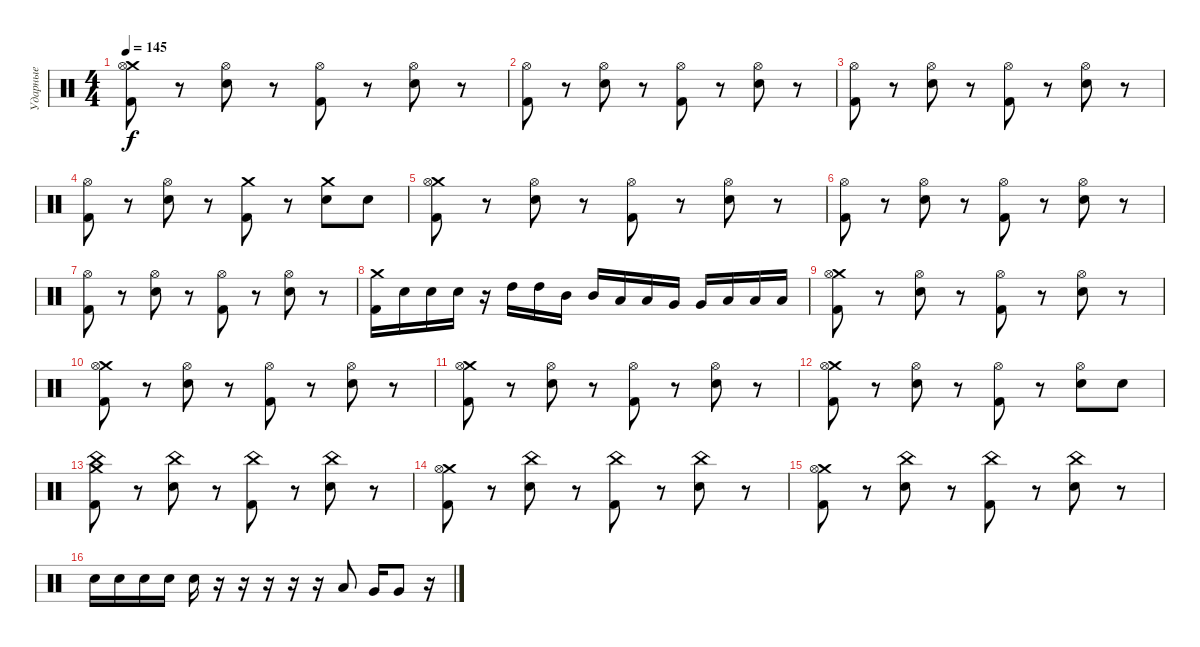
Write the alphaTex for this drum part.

\track ("Ударные" "Ударные") {instrument percussion}
\staff {score}
\articulation defaults
\ts (4 4)
\tempo 145
\clef neutral
\ks c
("Crash medium (hit)" "Hi-Hat (open)" "Kick (hit) 2").8{dy f} r.8 ("Hi-Hat (open)" "Electric Snare (hit)").8 r.8 ("Hi-Hat (open)" "Kick (hit) 2").8 r.8 ("Hi-Hat (open)" "Electric Snare (hit)").8 r.8 |
("Hi-Hat (open)" "Kick (hit) 2").8 r.8 ("Hi-Hat (open)" "Electric Snare (hit)").8 r.8 ("Hi-Hat (open)" "Kick (hit) 2").8 r.8 ("Hi-Hat (open)" "Electric Snare (hit)").8 r.8 |
("Hi-Hat (open)" "Kick (hit) 2").8 r.8 ("Hi-Hat (open)" "Electric Snare (hit)").8 r.8 ("Hi-Hat (open)" "Kick (hit) 2").8 r.8 ("Hi-Hat (open)" "Electric Snare (hit)").8 r.8 |
("Hi-Hat (open)" "Kick (hit) 2").8 r.8 ("Hi-Hat (open)" "Electric Snare (hit)").8 r.8 ("Crash medium (hit)" "Kick (hit) 2").8 r.8 ("Crash medium (hit)" "Electric Snare (hit)").8 "Electric Snare (hit)".8 |
("Crash medium (hit)" "Hi-Hat (open)" "Kick (hit) 2").8 r.8 ("Hi-Hat (open)" "Electric Snare (hit)").8 r.8 ("Hi-Hat (open)" "Kick (hit) 2").8 r.8 ("Hi-Hat (open)" "Electric Snare (hit)").8 r.8 |
("Hi-Hat (open)" "Kick (hit) 2").8 r.8 ("Hi-Hat (open)" "Electric Snare (hit)").8 r.8 ("Hi-Hat (open)" "Kick (hit) 2").8 r.8 ("Hi-Hat (open)" "Electric Snare (hit)").8 r.8 |
("Hi-Hat (open)" "Kick (hit) 2").8 r.8 ("Hi-Hat (open)" "Electric Snare (hit)").8 r.8 ("Hi-Hat (open)" "Kick (hit) 2").8 r.8 ("Hi-Hat (open)" "Electric Snare (hit)").8 r.8 |
("Crash medium (hit)" "Kick (hit) 2").16 "Electric Snare (hit)".16 "Electric Snare (hit)".16 "Electric Snare (hit)".16 r.16 "High Tom (hit)".16 "High Tom (hit)".16 "Mid Tom (hit)".16 "Mid Tom (hit)".16 "Low Tom (hit)".16 "Low Tom (hit)".16 "Very Low Tom (hit)".16 "Very Low Tom (hit)".16 "Low Floor Tom (hit)".16 "Low Floor Tom (hit)".16 "Low Floor Tom (hit)".16 |
("Crash medium (hit)" "Hi-Hat (open)" "Kick (hit) 2").8 r.8 ("Hi-Hat (open)" "Electric Snare (hit)").8 r.8 ("Hi-Hat (open)" "Kick (hit) 2").8 r.8 ("Hi-Hat (open)" "Electric Snare (hit)").8 r.8 |
("Crash medium (hit)" "Hi-Hat (open)" "Kick (hit) 2").8 r.8 ("Hi-Hat (open)" "Electric Snare (hit)").8 r.8 ("Hi-Hat (open)" "Kick (hit) 2").8 r.8 ("Hi-Hat (open)" "Electric Snare (hit)").8 r.8 |
("Crash medium (hit)" "Hi-Hat (open)" "Kick (hit) 2").8 r.8 ("Hi-Hat (open)" "Electric Snare (hit)").8 r.8 ("Hi-Hat (open)" "Kick (hit) 2").8 r.8 ("Hi-Hat (open)" "Electric Snare (hit)").8 r.8 |
("Crash medium (hit)" "Hi-Hat (open)" "Kick (hit) 2").8 r.8 ("Hi-Hat (open)" "Electric Snare (hit)").8 r.8 ("Hi-Hat (open)" "Kick (hit) 2").8 r.8 ("Hi-Hat (open)" "Electric Snare (hit)").8 "Electric Snare (hit)".8 |
("Crash medium (hit)" "China (hit)" "Kick (hit) 2").8 r.8 ("China (hit)" "Electric Snare (hit)").8 r.8 ("China (hit)" "Kick (hit) 2").8 r.8 ("China (hit)" "Electric Snare (hit)").8 r.8 |
("Crash medium (hit)" "Hi-Hat (open)" "Kick (hit) 2").8 r.8 ("China (hit)" "Electric Snare (hit)").8 r.8 ("China (hit)" "Kick (hit) 2").8 r.8 ("China (hit)" "Electric Snare (hit)").8 r.8 |
("Crash medium (hit)" "Hi-Hat (open)" "Kick (hit) 2").8 r.8 ("China (hit)" "Electric Snare (hit)").8 r.8 ("China (hit)" "Kick (hit) 2").8 r.8 ("China (hit)" "Electric Snare (hit)").8 r.8 |
"Electric Snare (hit)".16 "Electric Snare (hit)".16 "Electric Snare (hit)".16 "Electric Snare (hit)".16 "Electric Snare (hit)".16 r.16 r.16 r.16 r.16 r.16 "Low Tom (hit)".8 "Very Low Tom (hit)".16 "Very Low Tom (hit)".8 r.16
